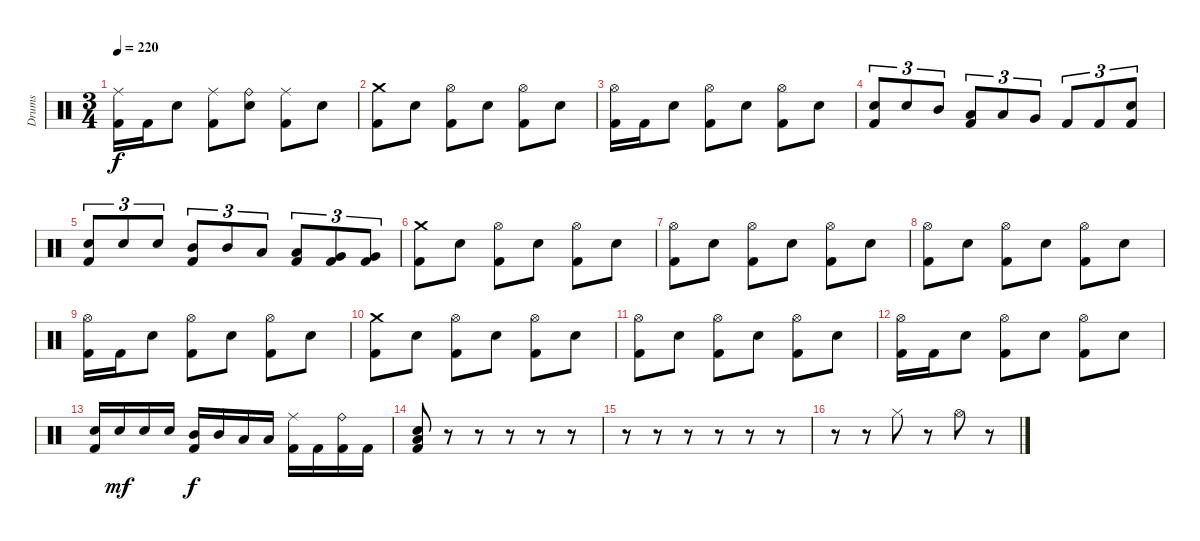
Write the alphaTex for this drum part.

\track ("Drums" "Drums") {instrument percussion}
\staff {score}
\articulation defaults
\ts (3 4)
\tempo 220
\clef neutral
\ks c
("Ride (middle)" "Kick (hit) 2").16{dy f} "Kick (hit) 2".16 "Electric Snare (hit)".8 ("Ride (middle)" "Kick (hit) 2").8 ("Ride (bell)" "Electric Snare (hit)").8 ("Ride (middle)" "Kick (hit) 2").8 "Electric Snare (hit)".8 |
("Crash medium (hit)" "Kick (hit) 2").8 "Electric Snare (hit)".8 ("Hi-Hat (open)" "Kick (hit) 2").8 "Electric Snare (hit)".8 ("Hi-Hat (open)" "Kick (hit) 2").8 "Electric Snare (hit)".8 |
("Hi-Hat (open)" "Kick (hit) 2").16 "Kick (hit) 2".16 "Electric Snare (hit)".8 ("Hi-Hat (open)" "Kick (hit) 2").8 "Electric Snare (hit)".8 ("Hi-Hat (open)" "Kick (hit) 2").8 "Electric Snare (hit)".8 |
("Electric Snare (hit)" "Kick (hit) 2").8{tu (3 2)} "Electric Snare (hit)".8{tu (3 2)} "Mid Tom (hit)".8{tu (3 2)} ("Low Tom (hit)" "Kick (hit) 2").8{tu (3 2)} "Low Tom (hit)".8{tu (3 2)} "Very Low Tom (hit)".8{tu (3 2)} "Kick (hit) 2".8{tu (3 2)} "Kick (hit) 2".8{tu (3 2)} ("Electric Snare (hit)" "Kick (hit) 2").8{tu (3 2)} |
("Electric Snare (hit)" "Kick (hit) 2").8{tu (3 2)} "Electric Snare (hit)".8{tu (3 2)} "Electric Snare (hit)".8{tu (3 2)} ("Mid Tom (hit)" "Kick (hit) 2").8{tu (3 2)} "Mid Tom (hit)".8{tu (3 2)} "Low Tom (hit)".8{tu (3 2)} ("Low Tom (hit)" "Kick (hit) 2").8{tu (3 2)} ("Very Low Tom (hit)" "Kick (hit) 2").8{tu (3 2)} ("Very Low Tom (hit)" "Kick (hit) 2").8{tu (3 2)} |
("Crash medium (hit)" "Kick (hit) 2").8 "Electric Snare (hit)".8 ("Hi-Hat (open)" "Kick (hit) 2").8 "Electric Snare (hit)".8 ("Hi-Hat (open)" "Kick (hit) 2").8 "Electric Snare (hit)".8 |
("Hi-Hat (open)" "Kick (hit) 2").8 "Electric Snare (hit)".8 ("Hi-Hat (open)" "Kick (hit) 2").8 "Electric Snare (hit)".8 ("Hi-Hat (open)" "Kick (hit) 2").8 "Electric Snare (hit)".8 |
("Hi-Hat (open)" "Kick (hit) 2").8 "Electric Snare (hit)".8 ("Hi-Hat (open)" "Kick (hit) 2").8 "Electric Snare (hit)".8 ("Hi-Hat (open)" "Kick (hit) 2").8 "Electric Snare (hit)".8 |
("Hi-Hat (open)" "Kick (hit) 2").16 "Kick (hit) 2".16 "Electric Snare (hit)".8 ("Hi-Hat (open)" "Kick (hit) 2").8 "Electric Snare (hit)".8 ("Hi-Hat (open)" "Kick (hit) 2").8 "Electric Snare (hit)".8 |
("Crash medium (hit)" "Kick (hit) 2").8 "Electric Snare (hit)".8 ("Hi-Hat (open)" "Kick (hit) 2").8 "Electric Snare (hit)".8 ("Hi-Hat (open)" "Kick (hit) 2").8 "Electric Snare (hit)".8 |
("Hi-Hat (open)" "Kick (hit) 2").8 "Electric Snare (hit)".8 ("Hi-Hat (open)" "Kick (hit) 2").8 "Electric Snare (hit)".8 ("Hi-Hat (open)" "Kick (hit) 2").8 "Electric Snare (hit)".8 |
("Hi-Hat (open)" "Kick (hit) 2").16 "Kick (hit) 2".16 "Electric Snare (hit)".8 ("Hi-Hat (open)" "Kick (hit) 2").8 "Electric Snare (hit)".8 ("Hi-Hat (open)" "Kick (hit) 2").8 "Electric Snare (hit)".8 |
("Electric Snare (hit)" "Kick (hit) 2").16 "Electric Snare (hit)".16{dy mf} "Electric Snare (hit)".16 "Electric Snare (hit)".16 ("Mid Tom (hit)" "Kick (hit) 2").16{dy f} "Mid Tom (hit)".16 "Low Tom (hit)".16 "Low Tom (hit)".16 ("Ride (middle)" "Kick (hit) 2").16 "Kick (hit) 2".16 ("Ride (bell)" "Kick (hit) 2").16 "Kick (hit) 2".16 |
("Low Floor Tom (hit)" "Electric Snare (hit)" "Kick (hit) 2").8 r.8 r.8 r.8 r.8 r.8 |
r.8 r.8 r.8 r.8 r.8 r.8 |
r.8 r.8 "Hi-Hat (closed)".8 r.8 "Hi-Hat (open)".8 r.8
